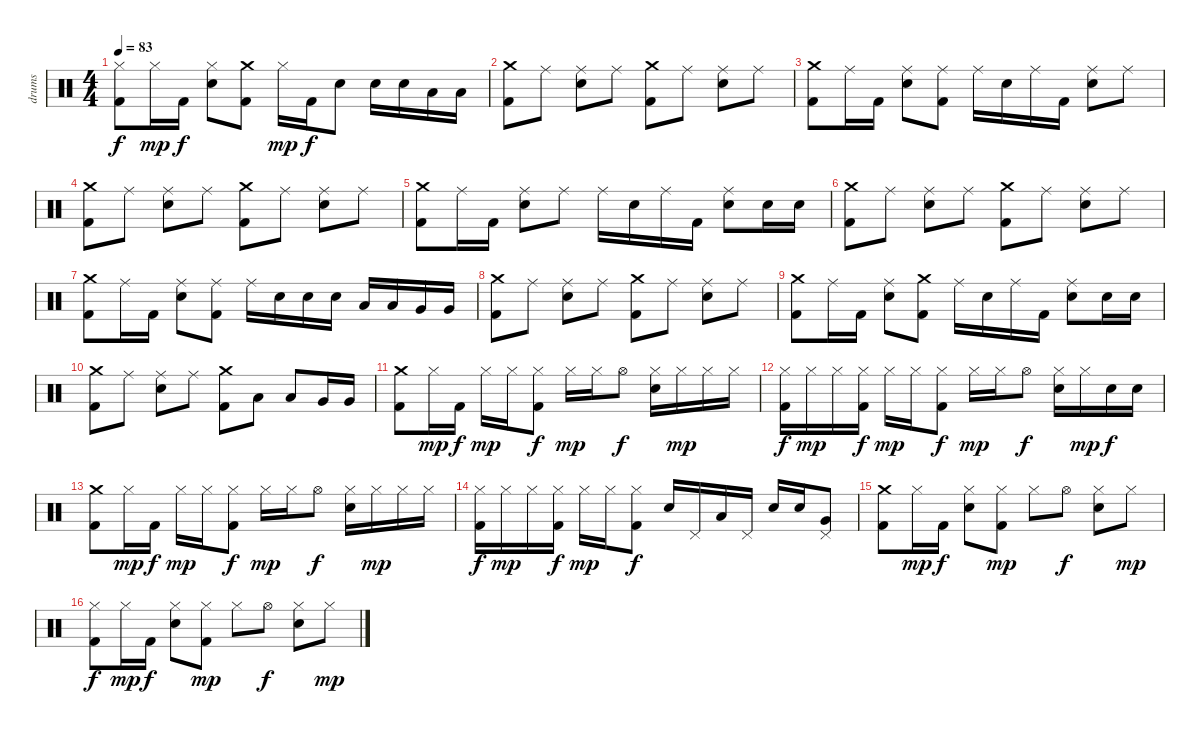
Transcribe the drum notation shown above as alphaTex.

\track ("drums" "drums") {instrument percussion}
\staff {score}
\articulation defaults
\ts (4 4)
\tempo 83
\clef neutral
\ks c
("Kick (hit) 2" "Hi-Hat (closed)").8{dy f} "Hi-Hat (closed)".16{dy mp} "Kick (hit) 2".16{dy f} ("Hi-Hat (closed)" "Electric Snare (hit)").8 ("Crash medium (hit)" "Kick (hit) 2").8 "Hi-Hat (closed)".16{dy mp} "Kick (hit) 2".16{dy f} "Electric Snare (hit)".8 "Electric Snare (hit)".16 "Electric Snare (hit)".16 "Low Tom (hit)".16 "Low Tom (hit)".16 |
("Crash medium (hit)" "Kick (hit) 2").8 "Ride (middle)".8 ("Ride (middle)" "Electric Snare (hit)").8 "Ride (middle)".8 ("Crash medium (hit)" "Kick (hit) 2").8 "Ride (middle)".8 ("Ride (middle)" "Electric Snare (hit)").8 "Ride (middle)".8 |
("Crash medium (hit)" "Kick (hit) 2").8 "Ride (middle)".16 "Kick (hit) 2".16 ("Ride (middle)" "Electric Snare (hit)").8 ("Ride (middle)" "Kick (hit) 2").8 "Ride (middle)".16 "Electric Snare (hit)".16 "Ride (middle)".16 "Kick (hit) 2".16 ("Ride (middle)" "Electric Snare (hit)").8 "Ride (middle)".8 |
("Crash medium (hit)" "Kick (hit) 2").8 "Ride (middle)".8 ("Ride (middle)" "Electric Snare (hit)").8 "Ride (middle)".8 ("Crash medium (hit)" "Kick (hit) 2").8 "Ride (middle)".8 ("Ride (middle)" "Electric Snare (hit)").8 "Ride (middle)".8 |
("Crash medium (hit)" "Kick (hit) 2").8 "Ride (middle)".16 "Kick (hit) 2".16 ("Ride (middle)" "Electric Snare (hit)").8 "Ride (middle)".8 "Ride (middle)".16 "Electric Snare (hit)".16 "Ride (middle)".16 "Kick (hit) 2".16 ("Electric Snare (hit)" "Ride (middle)").8 "Electric Snare (hit)".16 "Electric Snare (hit)".16 |
("Crash medium (hit)" "Kick (hit) 2").8 "Ride (middle)".8 ("Ride (middle)" "Electric Snare (hit)").8 "Ride (middle)".8 ("Crash medium (hit)" "Kick (hit) 2").8 "Ride (middle)".8 ("Ride (middle)" "Electric Snare (hit)").8 "Ride (middle)".8 |
("Crash medium (hit)" "Kick (hit) 2").8 "Ride (middle)".16 "Kick (hit) 2".16 ("Ride (middle)" "Electric Snare (hit)").8 ("Ride (middle)" "Kick (hit) 2").8 "Ride (middle)".16 "Electric Snare (hit)".16 "Electric Snare (hit)".16 "Electric Snare (hit)".16 "Low Tom (hit)".16 "Low Tom (hit)".16 "Very Low Tom (hit)".16 "Very Low Tom (hit)".16 |
("Crash medium (hit)" "Kick (hit) 2").8 "Ride (middle)".8 ("Ride (middle)" "Electric Snare (hit)").8 "Ride (middle)".8 ("Crash medium (hit)" "Kick (hit) 2").8 "Ride (middle)".8 ("Ride (middle)" "Electric Snare (hit)").8 "Ride (middle)".8 |
("Crash medium (hit)" "Kick (hit) 2").8 "Ride (middle)".16 "Kick (hit) 2".16 ("Ride (middle)" "Electric Snare (hit)").8 ("Crash medium (hit)" "Kick (hit) 2").8 "Ride (middle)".16 "Electric Snare (hit)".16 "Ride (middle)".16 "Kick (hit) 2".16 ("Ride (middle)" "Electric Snare (hit)").8 "Electric Snare (hit)".16 "Electric Snare (hit)".16 |
("Crash medium (hit)" "Kick (hit) 2").8 "Ride (middle)".8 ("Ride (middle)" "Electric Snare (hit)").8 "Ride (middle)".8 ("Crash medium (hit)" "Kick (hit) 2").8 "Low Tom (hit)".8 "Low Tom (hit)".8 "Very Low Tom (hit)".16 "Very Low Tom (hit)".16 |
("Kick (hit) 2" "Crash medium (hit)").8 "Hi-Hat (closed)".16{dy mp} "Kick (hit) 2".16{dy f} "Hi-Hat (closed)".16{dy mp} "Hi-Hat (closed)".16 ("Kick (hit) 2" "Hi-Hat (closed)").8{dy f} "Hi-Hat (closed)".16{dy mp} "Hi-Hat (closed)".16 "Hi-Hat (open)".8{dy f} ("Hi-Hat (closed)" "Electric Snare (hit)").16 "Hi-Hat (closed)".16{dy mp} "Hi-Hat (closed)".16 "Hi-Hat (closed)".16 |
("Kick (hit) 2" "Hi-Hat (closed)").16{dy f} "Hi-Hat (closed)".16{dy mp} "Hi-Hat (closed)".16 ("Kick (hit) 2" "Hi-Hat (closed)").16{dy f} "Hi-Hat (closed)".16{dy mp} "Hi-Hat (closed)".16 ("Kick (hit) 2" "Hi-Hat (closed)").8{dy f} "Hi-Hat (closed)".16{dy mp} "Hi-Hat (closed)".16 "Hi-Hat (open)".8{dy f} ("Hi-Hat (closed)" "Electric Snare (hit)").16 "Hi-Hat (closed)".16{dy mp} "Electric Snare (hit)".16{dy f} "Electric Snare (hit)".16 |
("Crash medium (hit)" "Kick (hit) 2").8 "Hi-Hat (closed)".16{dy mp} "Kick (hit) 2".16{dy f} "Hi-Hat (closed)".16{dy mp} "Hi-Hat (closed)".16 ("Hi-Hat (closed)" "Kick (hit) 2").8{dy f} "Hi-Hat (closed)".16{dy mp} "Hi-Hat (closed)".16 "Hi-Hat (open)".8{dy f} ("Hi-Hat (closed)" "Electric Snare (hit)").16 "Hi-Hat (closed)".16{dy mp} "Hi-Hat (closed)".16 "Hi-Hat (closed)".16 |
("Hi-Hat (closed)" "Kick (hit) 2").16{dy f} "Hi-Hat (closed)".16{dy mp} "Hi-Hat (closed)".16 ("Hi-Hat (closed)" "Kick (hit) 2").16{dy f} "Hi-Hat (closed)".16{dy mp} "Hi-Hat (closed)".16 ("Hi-Hat (closed)" "Kick (hit) 2").8{dy f} "Electric Snare (hit)".16 "Pedal Hi-Hat (hit)".16 "Low Tom (hit)".16 "Pedal Hi-Hat (hit)".16 "Electric Snare (hit)".16 "Electric Snare (hit)".16 ("Pedal Hi-Hat (hit)" "Very Low Tom (hit)").8 |
("Crash medium (hit)" "Kick (hit) 2").8 "Hi-Hat (closed)".16{dy mp} "Kick (hit) 2".16{dy f} ("Hi-Hat (closed)" "Electric Snare (hit)").8 ("Hi-Hat (closed)" "Kick (hit) 2").8{dy mp} "Hi-Hat (closed)".8 "Hi-Hat (open)".8{dy f} ("Hi-Hat (closed)" "Electric Snare (hit)").8 "Hi-Hat (closed)".8{dy mp} |
("Kick (hit) 2" "Hi-Hat (closed)").8{dy f} "Hi-Hat (closed)".16{dy mp} "Kick (hit) 2".16{dy f} ("Hi-Hat (closed)" "Electric Snare (hit)").8 ("Hi-Hat (closed)" "Kick (hit) 2").8{dy mp} "Hi-Hat (closed)".8 "Hi-Hat (open)".8{dy f} ("Hi-Hat (closed)" "Electric Snare (hit)").8 "Hi-Hat (closed)".8{dy mp}
